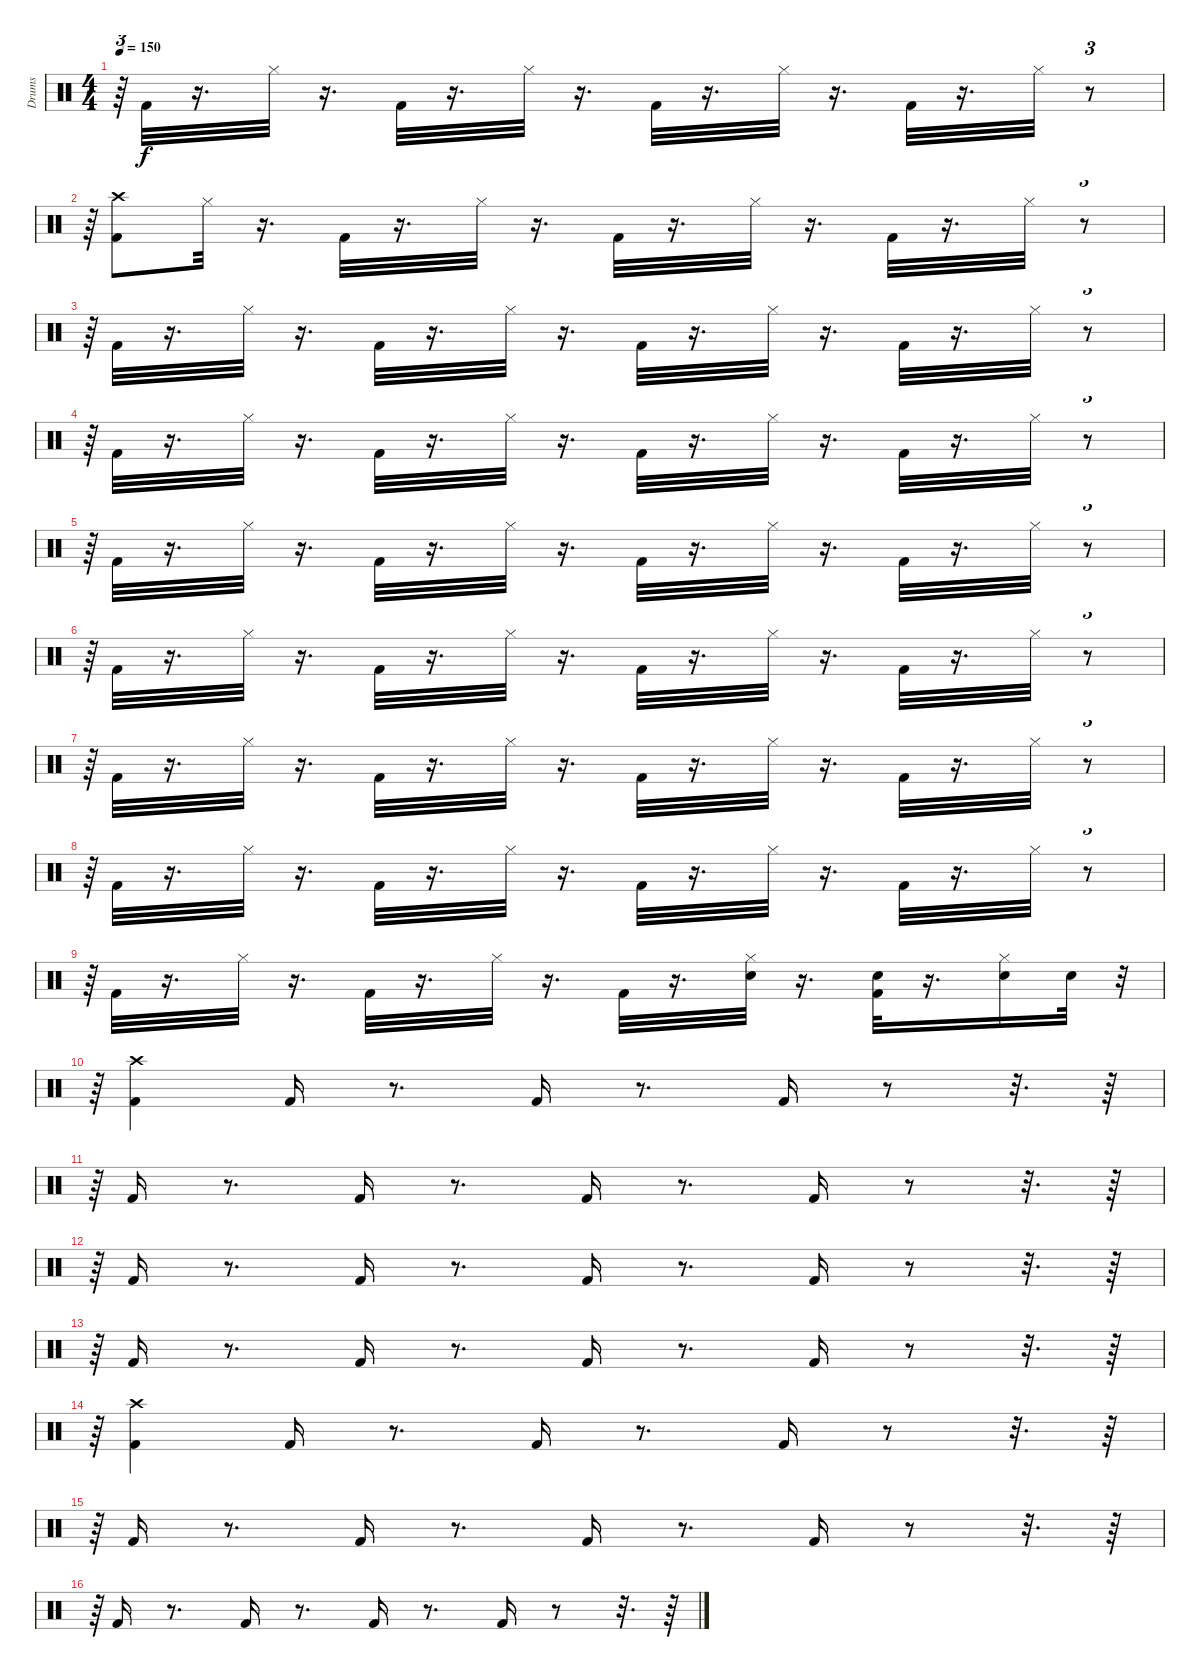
\track ("Drums" "Drums") {instrument percussion}
\staff {score}
\articulation defaults
\ts (4 4)
\tempo 150
\clef neutral
\ks c
r.64{tu (3 2) dy f} "Kick (hit) 2".32 r.16{d} "Hi-Hat (closed)".32 r.16{d} "Kick (hit) 2".32 r.16{d} "Hi-Hat (closed)".32 r.16{d} "Kick (hit) 2".32 r.16{d} "Hi-Hat (closed)".32 r.16{d} "Kick (hit) 2".32 r.16{d} "Hi-Hat (closed)".32 r.8{tu (3 2)} |
r.64{tu (3 2)} ("Kick (hit) 2" "Crash high (hit)").8 "Hi-Hat (closed)".32 r.16{d} "Kick (hit) 2".32 r.16{d} "Hi-Hat (closed)".32 r.16{d} "Kick (hit) 2".32 r.16{d} "Hi-Hat (closed)".32 r.16{d} "Kick (hit) 2".32 r.16{d} "Hi-Hat (closed)".32 r.8{tu (3 2)} |
r.64{tu (3 2)} "Kick (hit) 2".32 r.16{d} "Hi-Hat (closed)".32 r.16{d} "Kick (hit) 2".32 r.16{d} "Hi-Hat (closed)".32 r.16{d} "Kick (hit) 2".32 r.16{d} "Hi-Hat (closed)".32 r.16{d} "Kick (hit) 2".32 r.16{d} "Hi-Hat (closed)".32 r.8{tu (3 2)} |
r.64{tu (3 2)} "Kick (hit) 2".32 r.16{d} "Hi-Hat (closed)".32 r.16{d} "Kick (hit) 2".32 r.16{d} "Hi-Hat (closed)".32 r.16{d} "Kick (hit) 2".32 r.16{d} "Hi-Hat (closed)".32 r.16{d} "Kick (hit) 2".32 r.16{d} "Hi-Hat (closed)".32 r.8{tu (3 2)} |
r.64{tu (3 2)} "Kick (hit) 2".32 r.16{d} "Hi-Hat (closed)".32 r.16{d} "Kick (hit) 2".32 r.16{d} "Hi-Hat (closed)".32 r.16{d} "Kick (hit) 2".32 r.16{d} "Hi-Hat (closed)".32 r.16{d} "Kick (hit) 2".32 r.16{d} "Hi-Hat (closed)".32 r.8{tu (3 2)} |
r.64{tu (3 2)} "Kick (hit) 2".32 r.16{d} "Hi-Hat (closed)".32 r.16{d} "Kick (hit) 2".32 r.16{d} "Hi-Hat (closed)".32 r.16{d} "Kick (hit) 2".32 r.16{d} "Hi-Hat (closed)".32 r.16{d} "Kick (hit) 2".32 r.16{d} "Hi-Hat (closed)".32 r.8{tu (3 2)} |
r.64{tu (3 2)} "Kick (hit) 2".32 r.16{d} "Hi-Hat (closed)".32 r.16{d} "Kick (hit) 2".32 r.16{d} "Hi-Hat (closed)".32 r.16{d} "Kick (hit) 2".32 r.16{d} "Hi-Hat (closed)".32 r.16{d} "Kick (hit) 2".32 r.16{d} "Hi-Hat (closed)".32 r.8{tu (3 2)} |
r.64{tu (3 2)} "Kick (hit) 2".32 r.16{d} "Hi-Hat (closed)".32 r.16{d} "Kick (hit) 2".32 r.16{d} "Hi-Hat (closed)".32 r.16{d} "Kick (hit) 2".32 r.16{d} "Hi-Hat (closed)".32 r.16{d} "Kick (hit) 2".32 r.16{d} "Hi-Hat (closed)".32 r.8{tu (3 2)} |
r.64{tu (3 2)} "Kick (hit) 2".32 r.16{d} "Hi-Hat (closed)".32 r.16{d} "Kick (hit) 2".32 r.16{d} "Hi-Hat (closed)".32 r.16{d} "Kick (hit) 2".32 r.16{d} ("Snare (hit) 2" "Hi-Hat (closed)").32 r.16{d} ("Snare (hit) 2" "Kick (hit) 2").32 r.16{d} ("Snare (hit) 2" "Hi-Hat (closed)").16 "Snare (hit) 2".32 r.32{tu (3 2)} |
r.64{tu (3 2)} ("Kick (hit) 2" "Crash high (hit)").4 "Kick (hit) 2".16 r.8{d} "Kick (hit) 2".16 r.8{d} "Kick (hit) 2".16 r.8 r.32{d} r.64 |
r.64{tu (3 2)} "Kick (hit) 2".16 r.8{d} "Kick (hit) 2".16 r.8{d} "Kick (hit) 2".16 r.8{d} "Kick (hit) 2".16 r.8 r.32{d} r.64 |
r.64{tu (3 2)} "Kick (hit) 2".16 r.8{d} "Kick (hit) 2".16 r.8{d} "Kick (hit) 2".16 r.8{d} "Kick (hit) 2".16 r.8 r.32{d} r.64 |
r.64{tu (3 2)} "Kick (hit) 2".16 r.8{d} "Kick (hit) 2".16 r.8{d} "Kick (hit) 2".16 r.8{d} "Kick (hit) 2".16 r.8 r.32{d} r.64 |
r.64{tu (3 2)} ("Kick (hit) 2" "Crash high (hit)").4 "Kick (hit) 2".16 r.8{d} "Kick (hit) 2".16 r.8{d} "Kick (hit) 2".16 r.8 r.32{d} r.64 |
r.64{tu (3 2)} "Kick (hit) 2".16 r.8{d} "Kick (hit) 2".16 r.8{d} "Kick (hit) 2".16 r.8{d} "Kick (hit) 2".16 r.8 r.32{d} r.64 |
r.64{tu (3 2)} "Kick (hit) 2".16 r.8{d} "Kick (hit) 2".16 r.8{d} "Kick (hit) 2".16 r.8{d} "Kick (hit) 2".16 r.8 r.32{d} r.64
